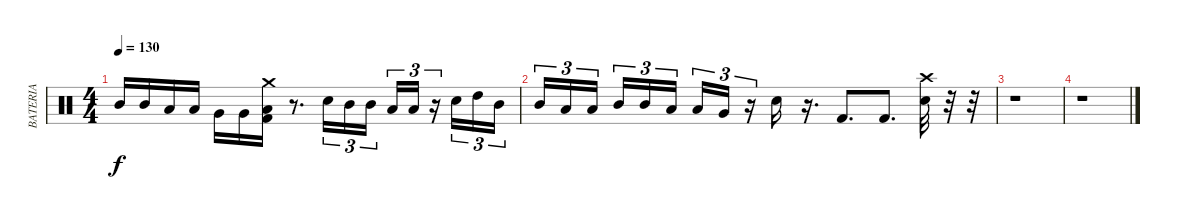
\track ("BATERIA" "BATERIA") {instrument percussion}
\staff {score}
\articulation defaults
\ts (4 4)
\tempo 130
\clef neutral
\ks c "Mid Tom (hit)".16{dy f} "Mid Tom (hit)".16 "Low Tom (hit)".16 "Low Tom (hit)".16 "Very Low Tom (hit)".16 "Very Low Tom (hit)".16
("Kick (hit) 2" "Low Floor Tom (hit)" "Crash medium (hit)").16 r.8{d} "Electric Snare (hit)".16{tu (3 2)} "Mid Tom (hit)".16{tu (3 2)} "Mid Tom (hit)".16{tu (3 2)} "Low Tom (hit)".16{tu (3 2)} "Low Tom (hit)".16{tu (3 2)} r.16{tu (3 2)} "Electric Snare (hit)".16{tu (3 2)} "High Tom (hit)".16{tu (3 2)} "Mid Tom (hit)".16{tu (3 2)} |
"Mid Tom (hit)".16{tu (3 2)} "Low Tom (hit)".16{tu (3 2)} "Low Tom (hit)".16{tu (3 2) beam splitsecondary} "Mid Tom (hit)".16{tu (3 2)} "Mid Tom (hit)".16{tu (3 2)} "Low Tom (hit)".16{tu (3 2)} "Low Tom (hit)".16{tu (3 2)} "Very Low Tom (hit)".16{tu (3 2)} r.16{tu (3 2)} "Electric Snare (hit)".16 r.16{d} "Kick (hit) 2".8{d} "Kick (hit) 2".8{d} ("Electric Snare (hit)" "Crash high (hit)").32 r.32 r.32 |
r.1 |
r.1
